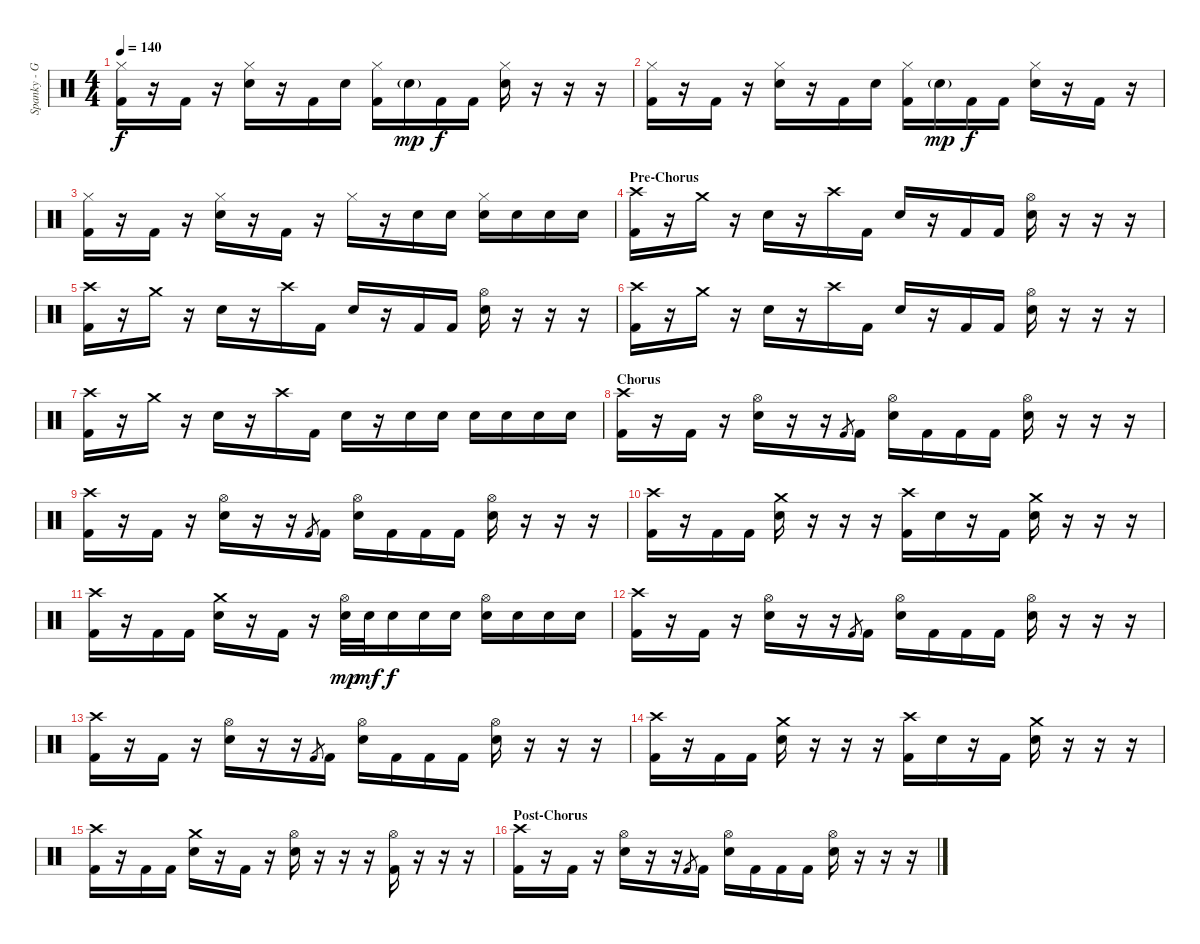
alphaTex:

\track ("Spanky - G (Ex-drummer)" "Spanky - G") {instrument percussion}
\staff {score}
\articulation defaults
\ts (4 4)
\tempo 140
\clef neutral
\ks c
("Hi-Hat (closed)" "Kick (hit) 2").16{dy f} r.16 "Kick (hit) 2".16 r.16 ("Hi-Hat (closed)" "Electric Snare (hit)").16 r.16 "Kick (hit) 2".16 "Electric Snare (hit)".16 ("Hi-Hat (closed)" "Kick (hit) 2").16 "Electric Snare (hit)"{g}.16{dy mp} "Kick (hit) 2".16{dy f} "Kick (hit) 2".16 ("Hi-Hat (closed)" "Electric Snare (hit)").16 r.16 r.16 r.16 |
("Hi-Hat (closed)" "Kick (hit) 2").16 r.16 "Kick (hit) 2".16 r.16 ("Hi-Hat (closed)" "Electric Snare (hit)").16 r.16 "Kick (hit) 2".16 "Electric Snare (hit)".16 ("Hi-Hat (closed)" "Kick (hit) 2").16 "Electric Snare (hit)"{g}.16{dy mp} "Kick (hit) 2".16{dy f} "Kick (hit) 2".16 ("Hi-Hat (closed)" "Electric Snare (hit)").16 r.16 "Kick (hit) 2".16 r.16 |
("Hi-Hat (closed)" "Kick (hit) 2").16 r.16 "Kick (hit) 2".16 r.16 ("Hi-Hat (closed)" "Electric Snare (hit)").16 r.16 "Kick (hit) 2".16 r.16 "Hi-Hat (closed)".16 r.16 "Electric Snare (hit)".16 "Electric Snare (hit)".16 ("Hi-Hat (closed)" "Electric Snare (hit)").16 "Electric Snare (hit)".16 "Electric Snare (hit)".16 "Electric Snare (hit)".16 |
\section ("" "Pre-Chorus")
("Crash high (hit)" "Kick (hit) 2").16 r.16 "Crash medium (hit)".16 r.16 "Electric Snare (hit)".16 r.16 "Crash high (hit)".16 "Kick (hit) 2".16 "Electric Snare (hit)".16 r.16 "Kick (hit) 2".16 "Kick (hit) 2".16 ("Hi-Hat (open)" "Electric Snare (hit)").16 r.16 r.16 r.16 |
("Crash high (hit)" "Kick (hit) 2").16 r.16 "Crash medium (hit)".16 r.16 "Electric Snare (hit)".16 r.16 "Crash high (hit)".16 "Kick (hit) 2".16 "Electric Snare (hit)".16 r.16 "Kick (hit) 2".16 "Kick (hit) 2".16 ("Hi-Hat (open)" "Electric Snare (hit)").16 r.16 r.16 r.16 |
("Crash high (hit)" "Kick (hit) 2").16 r.16 "Crash medium (hit)".16 r.16 "Electric Snare (hit)".16 r.16 "Crash high (hit)".16 "Kick (hit) 2".16 "Electric Snare (hit)".16 r.16 "Kick (hit) 2".16 "Kick (hit) 2".16 ("Hi-Hat (open)" "Electric Snare (hit)").16 r.16 r.16 r.16 |
("Crash high (hit)" "Kick (hit) 2").16 r.16 "Crash medium (hit)".16 r.16 "Electric Snare (hit)".16 r.16 "Crash high (hit)".16 "Kick (hit) 2".16 "Electric Snare (hit)".16 r.16 "Electric Snare (hit)".16 "Electric Snare (hit)".16 "Electric Snare (hit)".16 "Electric Snare (hit)".16 "Electric Snare (hit)".16 "Electric Snare (hit)".16 |
\section ("" "Chorus")
("Crash high (hit)" "Kick (hit) 2").16 r.16 "Kick (hit) 2".16 r.16 ("Hi-Hat (open)" "Electric Snare (hit)").16 r.16 r.16 "Kick (hit) 2".8{gr} "Kick (hit) 2".16 ("Hi-Hat (open)" "Electric Snare (hit)").16 "Kick (hit) 2".16 "Kick (hit) 2".16 "Kick (hit) 2".16 ("Hi-Hat (open)" "Electric Snare (hit)").16 r.16 r.16 r.16 |
("Crash high (hit)" "Kick (hit) 2").16 r.16 "Kick (hit) 2".16 r.16 ("Hi-Hat (open)" "Electric Snare (hit)").16 r.16 r.16 "Kick (hit) 2".8{gr} "Kick (hit) 2".16 ("Hi-Hat (open)" "Electric Snare (hit)").16 "Kick (hit) 2".16 "Kick (hit) 2".16 "Kick (hit) 2".16 ("Hi-Hat (open)" "Electric Snare (hit)").16 r.16 r.16 r.16 |
("Crash high (hit)" "Kick (hit) 2").16 r.16 "Kick (hit) 2".16 "Kick (hit) 2".16 ("Crash medium (hit)" "Electric Snare (hit)").16 r.16 r.16 r.16 ("Crash high (hit)" "Kick (hit) 2").16 "Electric Snare (hit)".16 r.16 "Kick (hit) 2".16 ("Crash medium (hit)" "Electric Snare (hit)").16 r.16 r.16 r.16 |
("Crash high (hit)" "Kick (hit) 2").16 r.16 "Kick (hit) 2".16 "Kick (hit) 2".16 ("Crash medium (hit)" "Electric Snare (hit)").16 r.16 "Kick (hit) 2".16 r.16 ("Hi-Hat (open)" "Electric Snare (hit)").32{dy mp} "Electric Snare (hit)".32{dy mf} "Electric Snare (hit)".16{dy f} "Electric Snare (hit)".16 "Electric Snare (hit)".16 ("Hi-Hat (open)" "Electric Snare (hit)").16 "Electric Snare (hit)".16 "Electric Snare (hit)".16 "Electric Snare (hit)".16 |
("Crash high (hit)" "Kick (hit) 2").16 r.16 "Kick (hit) 2".16 r.16 ("Hi-Hat (open)" "Electric Snare (hit)").16 r.16 r.16 "Kick (hit) 2".8{gr} "Kick (hit) 2".16 ("Hi-Hat (open)" "Electric Snare (hit)").16 "Kick (hit) 2".16 "Kick (hit) 2".16 "Kick (hit) 2".16 ("Hi-Hat (open)" "Electric Snare (hit)").16 r.16 r.16 r.16 |
("Crash high (hit)" "Kick (hit) 2").16 r.16 "Kick (hit) 2".16 r.16 ("Hi-Hat (open)" "Electric Snare (hit)").16 r.16 r.16 "Kick (hit) 2".8{gr} "Kick (hit) 2".16 ("Hi-Hat (open)" "Electric Snare (hit)").16 "Kick (hit) 2".16 "Kick (hit) 2".16 "Kick (hit) 2".16 ("Hi-Hat (open)" "Electric Snare (hit)").16 r.16 r.16 r.16 |
("Crash high (hit)" "Kick (hit) 2").16 r.16 "Kick (hit) 2".16 "Kick (hit) 2".16 ("Crash medium (hit)" "Electric Snare (hit)").16 r.16 r.16 r.16 ("Crash high (hit)" "Kick (hit) 2").16 "Electric Snare (hit)".16 r.16 "Kick (hit) 2".16 ("Crash medium (hit)" "Electric Snare (hit)").16 r.16 r.16 r.16 |
("Crash high (hit)" "Kick (hit) 2").16 r.16 "Kick (hit) 2".16 "Kick (hit) 2".16 ("Crash medium (hit)" "Electric Snare (hit)").16 r.16 "Kick (hit) 2".16 r.16 ("Hi-Hat (open)" "Electric Snare (hit)").16 r.16 r.16 r.16 ("Hi-Hat (open)" "Kick (hit) 2").16 r.16 r.16 r.16 |
\section ("" "Post-Chorus")
("Crash high (hit)" "Kick (hit) 2").16 r.16 "Kick (hit) 2".16 r.16 ("Hi-Hat (open)" "Electric Snare (hit)").16 r.16 r.16 "Kick (hit) 2".8{gr} "Kick (hit) 2".16 ("Hi-Hat (open)" "Electric Snare (hit)").16 "Kick (hit) 2".16 "Kick (hit) 2".16 "Kick (hit) 2".16 ("Hi-Hat (open)" "Electric Snare (hit)").16 r.16 r.16 r.16
